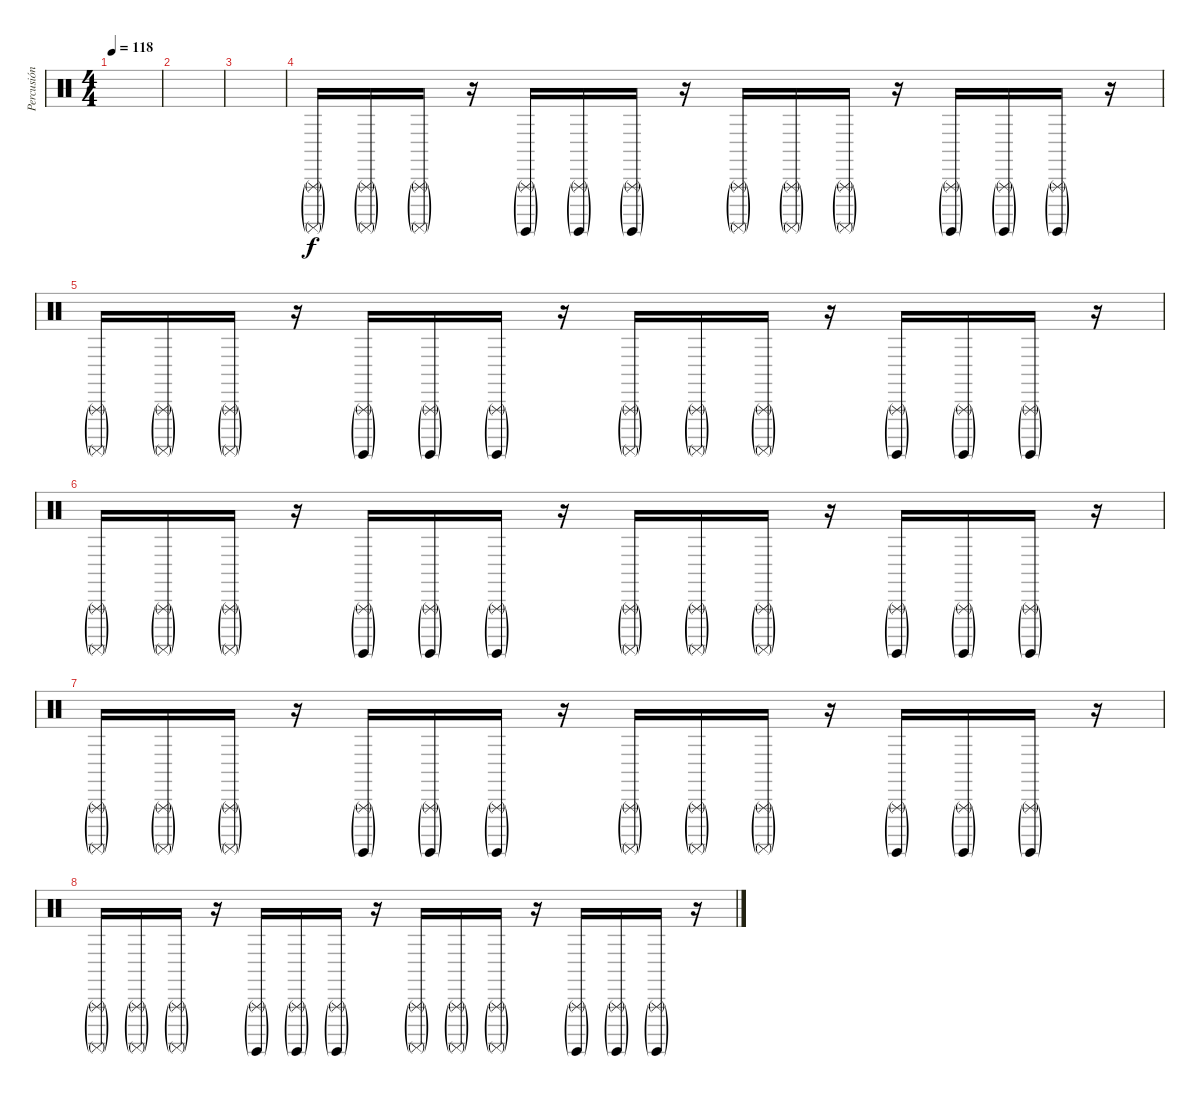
\track ("Percusión" "Percusión") {instrument percussion}
\staff {score}
\articulation defaults
\ts (4 4)
\tempo 118
\clef neutral
\ks c
|
|
|
("Triangle (rnute)"{g} "Surdo (mute)"{g}).16 ("Triangle (rnute)"{g} "Surdo (mute)"{g}).16 ("Triangle (rnute)"{g} "Surdo (mute)"{g}).16 r.16 ("Triangle (rnute)"{g} "Surdo (hit)"{g}).16 ("Triangle (rnute)"{g} "Surdo (hit)"{g}).16 ("Triangle (rnute)"{g} "Surdo (hit)"{g}).16 r.16 ("Triangle (rnute)"{g} "Surdo (mute)"{g}).16 ("Triangle (rnute)"{g} "Surdo (mute)"{g}).16 ("Triangle (rnute)"{g} "Surdo (mute)"{g}).16 r.16 ("Triangle (rnute)"{g} "Surdo (hit)"{g}).16 ("Triangle (rnute)"{g} "Surdo (hit)"{g}).16 ("Triangle (rnute)"{g} "Surdo (hit)"{g}).16 r.16 |
("Triangle (rnute)"{g} "Surdo (mute)"{g}).16 ("Triangle (rnute)"{g} "Surdo (mute)"{g}).16 ("Triangle (rnute)"{g} "Surdo (mute)"{g}).16 r.16 ("Triangle (rnute)"{g} "Surdo (hit)"{g}).16 ("Triangle (rnute)"{g} "Surdo (hit)"{g}).16 ("Triangle (rnute)"{g} "Surdo (hit)"{g}).16 r.16 ("Triangle (rnute)"{g} "Surdo (mute)"{g}).16 ("Triangle (rnute)"{g} "Surdo (mute)"{g}).16 ("Triangle (rnute)"{g} "Surdo (mute)"{g}).16 r.16 ("Triangle (rnute)"{g} "Surdo (hit)"{g}).16 ("Triangle (rnute)"{g} "Surdo (hit)"{g}).16 ("Triangle (rnute)"{g} "Surdo (hit)"{g}).16 r.16 |
("Triangle (rnute)"{g} "Surdo (mute)"{g}).16 ("Triangle (rnute)"{g} "Surdo (mute)"{g}).16 ("Triangle (rnute)"{g} "Surdo (mute)"{g}).16 r.16 ("Triangle (rnute)"{g} "Surdo (hit)"{g}).16 ("Triangle (rnute)"{g} "Surdo (hit)"{g}).16 ("Triangle (rnute)"{g} "Surdo (hit)"{g}).16 r.16 ("Triangle (rnute)"{g} "Surdo (mute)"{g}).16 ("Triangle (rnute)"{g} "Surdo (mute)"{g}).16 ("Triangle (rnute)"{g} "Surdo (mute)"{g}).16 r.16 ("Triangle (rnute)"{g} "Surdo (hit)"{g}).16 ("Triangle (rnute)"{g} "Surdo (hit)"{g}).16 ("Triangle (rnute)"{g} "Surdo (hit)"{g}).16 r.16 |
("Triangle (rnute)"{g} "Surdo (mute)"{g}).16 ("Triangle (rnute)"{g} "Surdo (mute)"{g}).16 ("Triangle (rnute)"{g} "Surdo (mute)"{g}).16 r.16 ("Triangle (rnute)"{g} "Surdo (hit)"{g}).16 ("Triangle (rnute)"{g} "Surdo (hit)"{g}).16 ("Triangle (rnute)"{g} "Surdo (hit)"{g}).16 r.16 ("Triangle (rnute)"{g} "Surdo (mute)"{g}).16 ("Triangle (rnute)"{g} "Surdo (mute)"{g}).16 ("Triangle (rnute)"{g} "Surdo (mute)"{g}).16 r.16 ("Triangle (rnute)"{g} "Surdo (hit)"{g}).16 ("Triangle (rnute)"{g} "Surdo (hit)"{g}).16 ("Triangle (rnute)"{g} "Surdo (hit)"{g}).16 r.16 |
("Triangle (rnute)"{g} "Surdo (mute)"{g}).16 ("Triangle (rnute)"{g} "Surdo (mute)"{g}).16 ("Triangle (rnute)"{g} "Surdo (mute)"{g}).16 r.16 ("Triangle (rnute)"{g} "Surdo (hit)"{g}).16 ("Triangle (rnute)"{g} "Surdo (hit)"{g}).16 ("Triangle (rnute)"{g} "Surdo (hit)"{g}).16 r.16 ("Triangle (rnute)"{g} "Surdo (mute)"{g}).16 ("Triangle (rnute)"{g} "Surdo (mute)"{g}).16 ("Triangle (rnute)"{g} "Surdo (mute)"{g}).16 r.16 ("Triangle (rnute)"{g} "Surdo (hit)"{g}).16 ("Triangle (rnute)"{g} "Surdo (hit)"{g}).16 ("Triangle (rnute)"{g} "Surdo (hit)"{g}).16 r.16
